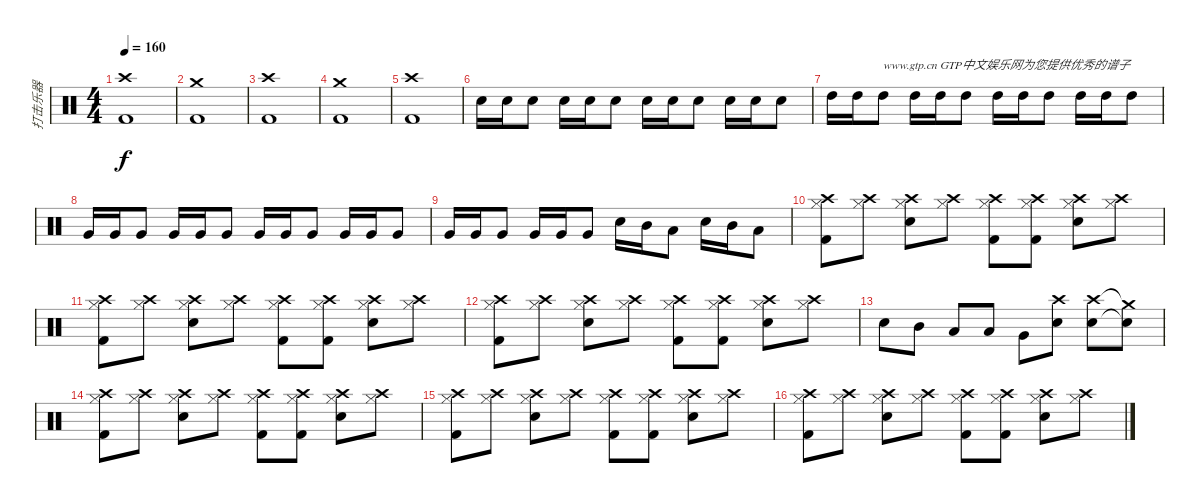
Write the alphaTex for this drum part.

\track ("打击乐器" "打击乐器") {instrument percussion}
\staff {score}
\articulation defaults
\ts (4 4)
\tempo 160
\clef neutral
\ks c
("Crash high (hit)" "Kick (hit) 2").1{dy f} |
("Crash medium (hit)" "Kick (hit) 2").1 |
("Crash high (hit)" "Kick (hit) 2").1 |
("Crash medium (hit)" "Kick (hit) 2").1 |
("Crash high (hit)" "Kick (hit) 2").1 |
"Electric Snare (hit)".16 "Electric Snare (hit)".16 "Electric Snare (hit)".8 "Electric Snare (hit)".16 "Electric Snare (hit)".16 "Electric Snare (hit)".8 "Electric Snare (hit)".16 "Electric Snare (hit)".16 "Electric Snare (hit)".8 "Electric Snare (hit)".16 "Electric Snare (hit)".16 "Electric Snare (hit)".8 |
"High Tom (hit)".16 "High Tom (hit)".16 "High Tom (hit)".8{txt "www.gtp.cn GTP中文娱乐网为您提供优秀的谱子"} "High Tom (hit)".16 "High Tom (hit)".16 "High Tom (hit)".8 "High Tom (hit)".16 "High Tom (hit)".16 "High Tom (hit)".8 "High Tom (hit)".16 "High Tom (hit)".16 "High Tom (hit)".8 |
"Very Low Tom (hit)".16 "Very Low Tom (hit)".16 "Very Low Tom (hit)".8 "Very Low Tom (hit)".16 "Very Low Tom (hit)".16 "Very Low Tom (hit)".8 "Very Low Tom (hit)".16 "Very Low Tom (hit)".16 "Very Low Tom (hit)".8 "Very Low Tom (hit)".16 "Very Low Tom (hit)".16 "Very Low Tom (hit)".8 |
"Very Low Tom (hit)".16 "Very Low Tom (hit)".16 "Very Low Tom (hit)".8 "Very Low Tom (hit)".16 "Very Low Tom (hit)".16 "Very Low Tom (hit)".8 "Electric Snare (hit)".16 "Mid Tom (hit)".16 "Low Tom (hit)".8 "Electric Snare (hit)".16 "Mid Tom (hit)".16 "Low Tom (hit)".8 |
("Crash high (hit)" "Hi-Hat (closed)" "Kick (hit) 2").8 ("Crash high (hit)" "Hi-Hat (closed)").8 ("Crash high (hit)" "Hi-Hat (closed)" "Electric Snare (hit)").8 ("Crash high (hit)" "Hi-Hat (closed)").8 ("Crash high (hit)" "Hi-Hat (closed)" "Kick (hit) 2").8 ("Crash high (hit)" "Hi-Hat (closed)" "Kick (hit) 2").8 ("Crash high (hit)" "Hi-Hat (closed)" "Electric Snare (hit)").8 ("Crash high (hit)" "Hi-Hat (closed)").8 |
("Crash high (hit)" "Hi-Hat (closed)" "Kick (hit) 2").8 ("Crash high (hit)" "Hi-Hat (closed)").8 ("Crash high (hit)" "Hi-Hat (closed)" "Electric Snare (hit)").8 ("Crash high (hit)" "Hi-Hat (closed)").8 ("Crash high (hit)" "Hi-Hat (closed)" "Kick (hit) 2").8 ("Crash high (hit)" "Hi-Hat (closed)" "Kick (hit) 2").8 ("Crash high (hit)" "Hi-Hat (closed)" "Electric Snare (hit)").8 ("Crash high (hit)" "Hi-Hat (closed)").8 |
("Crash high (hit)" "Hi-Hat (closed)" "Kick (hit) 2").8 ("Crash high (hit)" "Hi-Hat (closed)").8 ("Crash high (hit)" "Hi-Hat (closed)" "Electric Snare (hit)").8 ("Crash high (hit)" "Hi-Hat (closed)").8 ("Crash high (hit)" "Hi-Hat (closed)" "Kick (hit) 2").8 ("Crash high (hit)" "Hi-Hat (closed)" "Kick (hit) 2").8 ("Crash high (hit)" "Hi-Hat (closed)" "Electric Snare (hit)").8 ("Crash high (hit)" "Hi-Hat (closed)").8 |
"Electric Snare (hit)".8 "Mid Tom (hit)".8 "Low Tom (hit)".8 "Low Tom (hit)".8 "Very Low Tom (hit)".8 ("Crash high (hit)" "Electric Snare (hit)").8 ("Crash high (hit)" "Electric Snare (hit)").8 ("Crash medium (hit)"{t} "Electric Snare (hit)"{t}).8 |
("Crash high (hit)" "Hi-Hat (closed)" "Kick (hit) 2").8 ("Crash high (hit)" "Hi-Hat (closed)").8 ("Crash high (hit)" "Hi-Hat (closed)" "Electric Snare (hit)").8 ("Crash high (hit)" "Hi-Hat (closed)").8 ("Crash high (hit)" "Hi-Hat (closed)" "Kick (hit) 2").8 ("Crash high (hit)" "Hi-Hat (closed)" "Kick (hit) 2").8 ("Crash high (hit)" "Hi-Hat (closed)" "Electric Snare (hit)").8 ("Crash high (hit)" "Hi-Hat (closed)").8 |
("Crash high (hit)" "Hi-Hat (closed)" "Kick (hit) 2").8 ("Crash high (hit)" "Hi-Hat (closed)").8 ("Crash high (hit)" "Hi-Hat (closed)" "Electric Snare (hit)").8 ("Crash high (hit)" "Hi-Hat (closed)").8 ("Crash high (hit)" "Hi-Hat (closed)" "Kick (hit) 2").8 ("Crash high (hit)" "Hi-Hat (closed)" "Kick (hit) 2").8 ("Crash high (hit)" "Hi-Hat (closed)" "Electric Snare (hit)").8 ("Crash high (hit)" "Hi-Hat (closed)").8 |
("Crash high (hit)" "Hi-Hat (closed)" "Kick (hit) 2").8 ("Crash high (hit)" "Hi-Hat (closed)").8 ("Crash high (hit)" "Hi-Hat (closed)" "Electric Snare (hit)").8 ("Crash high (hit)" "Hi-Hat (closed)").8 ("Crash high (hit)" "Hi-Hat (closed)" "Kick (hit) 2").8 ("Crash high (hit)" "Hi-Hat (closed)" "Kick (hit) 2").8 ("Crash high (hit)" "Hi-Hat (closed)" "Electric Snare (hit)").8 ("Crash high (hit)" "Hi-Hat (closed)").8
